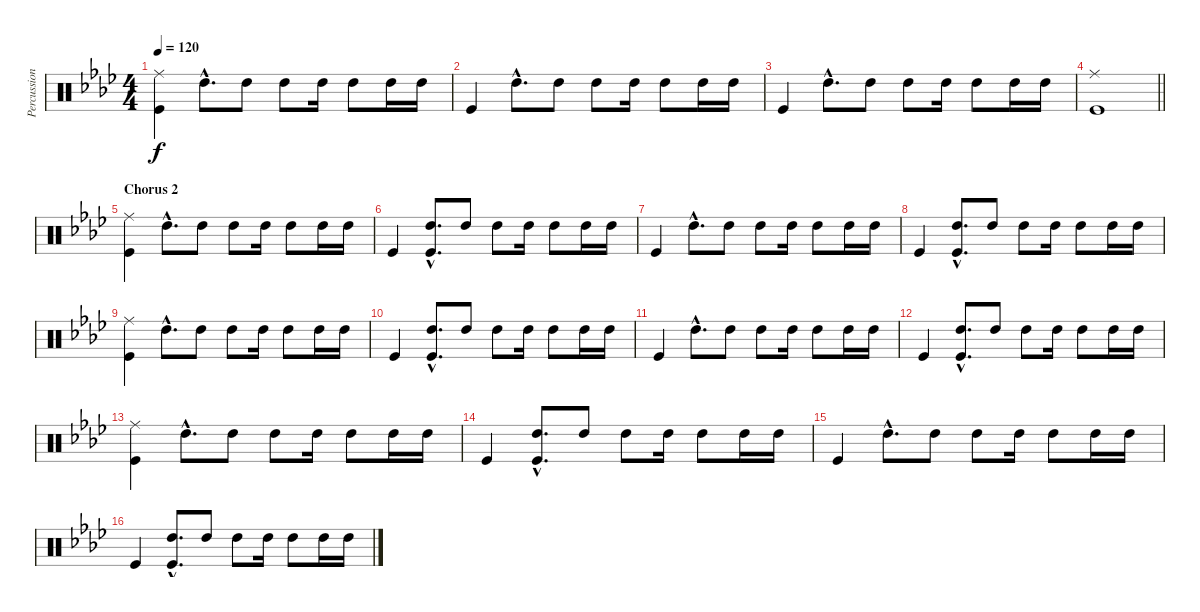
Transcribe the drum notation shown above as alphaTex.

\track ("Percussion" "Percussion") {instrument percussion}
\staff {score}
\articulation defaults
\ts (4 4)
\tempo 120
\clef neutral
\ks fminor
("Ride (middle)" "Kick (hit)").4{dy f} "High Tom (hit)"{hac}.8{d} "High Tom (hit)".8 "High Tom (hit)".8 "High Tom (hit)".16 "High Tom (hit)".8 "High Tom (hit)".16 "High Tom (hit)".16 |
"Kick (hit)".4 "High Tom (hit)"{hac}.8{d} "High Tom (hit)".8 "High Tom (hit)".8 "High Tom (hit)".16 "High Tom (hit)".8 "High Tom (hit)".16 "High Tom (hit)".16 |
"Kick (hit)".4 "High Tom (hit)"{hac}.8{d} "High Tom (hit)".8 "High Tom (hit)".8 "High Tom (hit)".16 "High Tom (hit)".8 "High Tom (hit)".16 "High Tom (hit)".16 |
\barLineRight lightlight
("Ride (middle)" "Kick (hit)").1 |
\section ("" "Chorus 2")
("Ride (middle)" "Kick (hit)").4 "High Tom (hit)"{hac}.8{d} "High Tom (hit)".8 "High Tom (hit)".8 "High Tom (hit)".16 "High Tom (hit)".8 "High Tom (hit)".16 "High Tom (hit)".16 |
"Kick (hit)".4 ("High Tom (hit)"{hac} "Kick (hit)"{hac}).8{d} "High Tom (hit)".8 "High Tom (hit)".8 "High Tom (hit)".16 "High Tom (hit)".8 "High Tom (hit)".16 "High Tom (hit)".16 |
"Kick (hit)".4 "High Tom (hit)"{hac}.8{d} "High Tom (hit)".8 "High Tom (hit)".8 "High Tom (hit)".16 "High Tom (hit)".8 "High Tom (hit)".16 "High Tom (hit)".16 |
"Kick (hit)".4 ("High Tom (hit)"{hac} "Kick (hit)"{hac}).8{d} "High Tom (hit)".8 "High Tom (hit)".8 "High Tom (hit)".16 "High Tom (hit)".8 "High Tom (hit)".16 "High Tom (hit)".16 |
("Ride (middle)" "Kick (hit)").4 "High Tom (hit)"{hac}.8{d} "High Tom (hit)".8 "High Tom (hit)".8 "High Tom (hit)".16 "High Tom (hit)".8 "High Tom (hit)".16 "High Tom (hit)".16 |
"Kick (hit)".4 ("High Tom (hit)"{hac} "Kick (hit)"{hac}).8{d} "High Tom (hit)".8 "High Tom (hit)".8 "High Tom (hit)".16 "High Tom (hit)".8 "High Tom (hit)".16 "High Tom (hit)".16 |
"Kick (hit)".4 "High Tom (hit)"{hac}.8{d} "High Tom (hit)".8 "High Tom (hit)".8 "High Tom (hit)".16 "High Tom (hit)".8 "High Tom (hit)".16 "High Tom (hit)".16 |
"Kick (hit)".4 ("High Tom (hit)"{hac} "Kick (hit)"{hac}).8{d} "High Tom (hit)".8 "High Tom (hit)".8 "High Tom (hit)".16 "High Tom (hit)".8 "High Tom (hit)".16 "High Tom (hit)".16 |
("Ride (middle)" "Kick (hit)").4 "High Tom (hit)"{hac}.8{d} "High Tom (hit)".8 "High Tom (hit)".8 "High Tom (hit)".16 "High Tom (hit)".8 "High Tom (hit)".16 "High Tom (hit)".16 |
"Kick (hit)".4 ("High Tom (hit)"{hac} "Kick (hit)"{hac}).8{d} "High Tom (hit)".8 "High Tom (hit)".8 "High Tom (hit)".16 "High Tom (hit)".8 "High Tom (hit)".16 "High Tom (hit)".16 |
"Kick (hit)".4 "High Tom (hit)"{hac}.8{d} "High Tom (hit)".8 "High Tom (hit)".8 "High Tom (hit)".16 "High Tom (hit)".8 "High Tom (hit)".16 "High Tom (hit)".16 |
"Kick (hit)".4 ("High Tom (hit)"{hac} "Kick (hit)"{hac}).8{d} "High Tom (hit)".8 "High Tom (hit)".8 "High Tom (hit)".16 "High Tom (hit)".8 "High Tom (hit)".16 "High Tom (hit)".16
